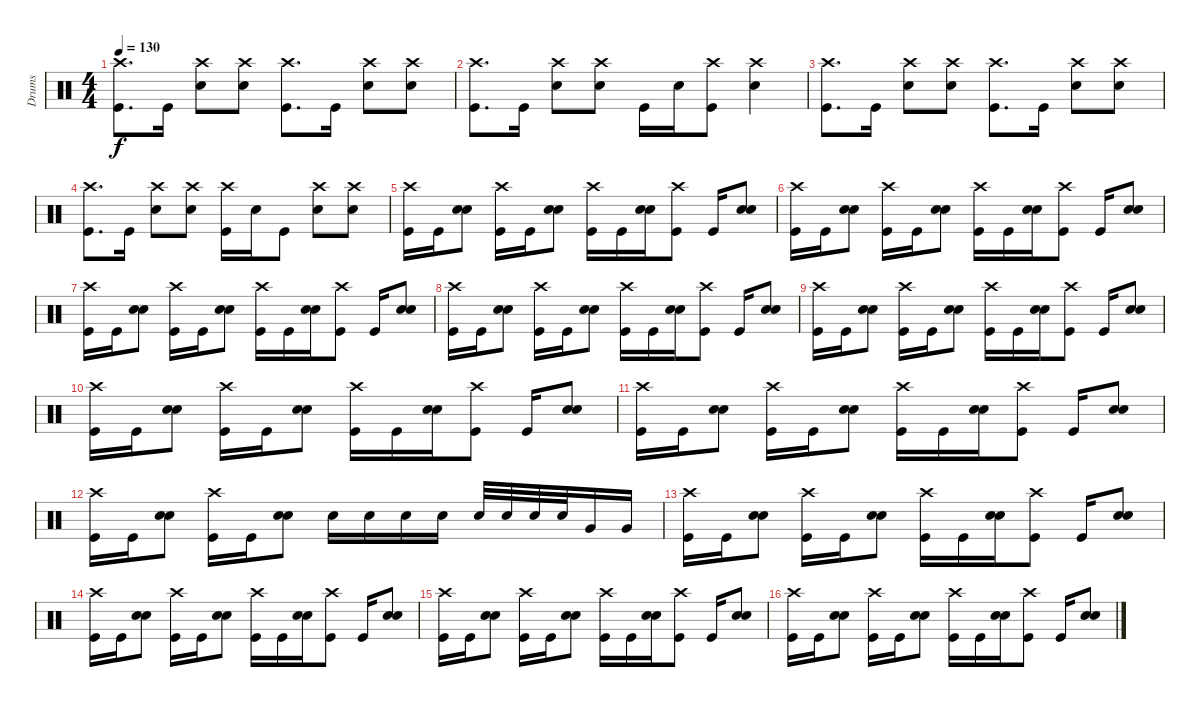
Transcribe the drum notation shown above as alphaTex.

\track ("Drums" "Drums") {instrument percussion}
\staff {score}
\articulation defaults
\ts (4 4)
\tempo 130
\clef neutral
\ks c
("Crash high (hit)" "Kick (hit)").8{d dy f} "Kick (hit)".16 ("Crash high (hit)" "Snare (hit) 2").8 ("Crash high (hit)" "Snare (hit) 2").8 ("Crash high (hit)" "Kick (hit)").8{d} "Kick (hit)".16 ("Crash high (hit)" "Snare (hit) 2").8 ("Crash high (hit)" "Snare (hit) 2").8 |
("Crash high (hit)" "Kick (hit)").8{d} "Kick (hit)".16 ("Crash high (hit)" "Snare (hit) 2").8 ("Crash high (hit)" "Snare (hit) 2").8 "Kick (hit)".16 "Snare (hit) 2".16 ("Crash high (hit)" "Kick (hit)").8 ("Crash high (hit)" "Snare (hit) 2").4 |
("Crash high (hit)" "Kick (hit)").8{d} "Kick (hit)".16 ("Crash high (hit)" "Snare (hit) 2").8 ("Crash high (hit)" "Snare (hit) 2").8 ("Crash high (hit)" "Kick (hit)").8{d} "Kick (hit)".16 ("Crash high (hit)" "Snare (hit) 2").8 ("Crash high (hit)" "Snare (hit) 2").8 |
("Crash high (hit)" "Kick (hit)").8{d} "Kick (hit)".16 ("Crash high (hit)" "Snare (hit) 2").8 ("Crash high (hit)" "Snare (hit) 2").8 ("Crash high (hit)" "Kick (hit)").16 "Snare (hit) 2".16 "Kick (hit)".8 ("Crash high (hit)" "Snare (hit) 2").8 ("Crash high (hit)" "Snare (hit) 2").8 |
("Crash high (hit)" "Kick (hit)").16 "Kick (hit)".16 ("Snare (hit) 2" "Snare (hit) 2").8 ("Crash high (hit)" "Kick (hit)").16 "Kick (hit)".16 ("Snare (hit) 2" "Snare (hit) 2").8 ("Crash high (hit)" "Kick (hit)").16 "Kick (hit)".16 ("Snare (hit) 2" "Snare (hit) 2").16 ("Crash high (hit)" "Kick (hit)").8 "Kick (hit)".16 ("Snare (hit) 2" "Snare (hit) 2").8 |
("Crash high (hit)" "Kick (hit)").16 "Kick (hit)".16 ("Snare (hit) 2" "Snare (hit) 2").8 ("Crash high (hit)" "Kick (hit)").16 "Kick (hit)".16 ("Snare (hit) 2" "Snare (hit) 2").8 ("Crash high (hit)" "Kick (hit)").16 "Kick (hit)".16 ("Snare (hit) 2" "Snare (hit) 2").16 ("Crash high (hit)" "Kick (hit)").8 "Kick (hit)".16 ("Snare (hit) 2" "Snare (hit) 2").8 |
("Crash high (hit)" "Kick (hit)").16 "Kick (hit)".16 ("Snare (hit) 2" "Snare (hit) 2").8 ("Crash high (hit)" "Kick (hit)").16 "Kick (hit)".16 ("Snare (hit) 2" "Snare (hit) 2").8 ("Crash high (hit)" "Kick (hit)").16 "Kick (hit)".16 ("Snare (hit) 2" "Snare (hit) 2").16 ("Crash high (hit)" "Kick (hit)").8 "Kick (hit)".16 ("Snare (hit) 2" "Snare (hit) 2").8 |
("Crash high (hit)" "Kick (hit)").16 "Kick (hit)".16 ("Snare (hit) 2" "Snare (hit) 2").8 ("Crash high (hit)" "Kick (hit)").16 "Kick (hit)".16 ("Snare (hit) 2" "Snare (hit) 2").8 ("Crash high (hit)" "Kick (hit)").16 "Kick (hit)".16 ("Snare (hit) 2" "Snare (hit) 2").16 ("Crash high (hit)" "Kick (hit)").8 "Kick (hit)".16 ("Snare (hit) 2" "Snare (hit) 2").8 |
("Crash high (hit)" "Kick (hit)").16 "Kick (hit)".16 ("Snare (hit) 2" "Snare (hit) 2").8 ("Crash high (hit)" "Kick (hit)").16 "Kick (hit)".16 ("Snare (hit) 2" "Snare (hit) 2").8 ("Crash high (hit)" "Kick (hit)").16 "Kick (hit)".16 ("Snare (hit) 2" "Snare (hit) 2").16 ("Crash high (hit)" "Kick (hit)").8 "Kick (hit)".16 ("Snare (hit) 2" "Snare (hit) 2").8 |
("Crash high (hit)" "Kick (hit)").16 "Kick (hit)".16 ("Snare (hit) 2" "Snare (hit) 2").8 ("Crash high (hit)" "Kick (hit)").16 "Kick (hit)".16 ("Snare (hit) 2" "Snare (hit) 2").8 ("Crash high (hit)" "Kick (hit)").16 "Kick (hit)".16 ("Snare (hit) 2" "Snare (hit) 2").16 ("Crash high (hit)" "Kick (hit)").8 "Kick (hit)".16 ("Snare (hit) 2" "Snare (hit) 2").8 |
("Crash high (hit)" "Kick (hit)").16 "Kick (hit)".16 ("Snare (hit) 2" "Snare (hit) 2").8 ("Crash high (hit)" "Kick (hit)").16 "Kick (hit)".16 ("Snare (hit) 2" "Snare (hit) 2").8 ("Crash high (hit)" "Kick (hit)").16 "Kick (hit)".16 ("Snare (hit) 2" "Snare (hit) 2").16 ("Crash high (hit)" "Kick (hit)").8 "Kick (hit)".16 ("Snare (hit) 2" "Snare (hit) 2").8 |
("Crash high (hit)" "Kick (hit)").16 "Kick (hit)".16 ("Snare (hit) 2" "Snare (hit) 2").8 ("Crash high (hit)" "Kick (hit)").16 "Kick (hit)".16 ("Snare (hit) 2" "Snare (hit) 2").8 "Snare (hit) 2".16 "Snare (hit) 2".16 "Snare (hit) 2".16 "Snare (hit) 2".16 "Snare (hit) 2".32 "Snare (hit) 2".32 "Snare (hit) 2".32 "Snare (hit) 2".32 "Very Low Tom (hit)".16 "Very Low Tom (hit)".16 |
("Crash high (hit)" "Kick (hit)").16 "Kick (hit)".16 ("Snare (hit) 2" "Snare (hit) 2").8 ("Crash high (hit)" "Kick (hit)").16 "Kick (hit)".16 ("Snare (hit) 2" "Snare (hit) 2").8 ("Crash high (hit)" "Kick (hit)").16 "Kick (hit)".16 ("Snare (hit) 2" "Snare (hit) 2").16 ("Crash high (hit)" "Kick (hit)").8 "Kick (hit)".16 ("Snare (hit) 2" "Snare (hit) 2").8 |
("Crash high (hit)" "Kick (hit)").16 "Kick (hit)".16 ("Snare (hit) 2" "Snare (hit) 2").8 ("Crash high (hit)" "Kick (hit)").16 "Kick (hit)".16 ("Snare (hit) 2" "Snare (hit) 2").8 ("Crash high (hit)" "Kick (hit)").16 "Kick (hit)".16 ("Snare (hit) 2" "Snare (hit) 2").16 ("Crash high (hit)" "Kick (hit)").8 "Kick (hit)".16 ("Snare (hit) 2" "Snare (hit) 2").8 |
("Crash high (hit)" "Kick (hit)").16 "Kick (hit)".16 ("Snare (hit) 2" "Snare (hit) 2").8 ("Crash high (hit)" "Kick (hit)").16 "Kick (hit)".16 ("Snare (hit) 2" "Snare (hit) 2").8 ("Crash high (hit)" "Kick (hit)").16 "Kick (hit)".16 ("Snare (hit) 2" "Snare (hit) 2").16 ("Crash high (hit)" "Kick (hit)").8 "Kick (hit)".16 ("Snare (hit) 2" "Snare (hit) 2").8 |
("Crash high (hit)" "Kick (hit)").16 "Kick (hit)".16 ("Snare (hit) 2" "Snare (hit) 2").8 ("Crash high (hit)" "Kick (hit)").16 "Kick (hit)".16 ("Snare (hit) 2" "Snare (hit) 2").8 ("Crash high (hit)" "Kick (hit)").16 "Kick (hit)".16 ("Snare (hit) 2" "Snare (hit) 2").16 ("Crash high (hit)" "Kick (hit)").8 "Kick (hit)".16 ("Snare (hit) 2" "Snare (hit) 2").8
